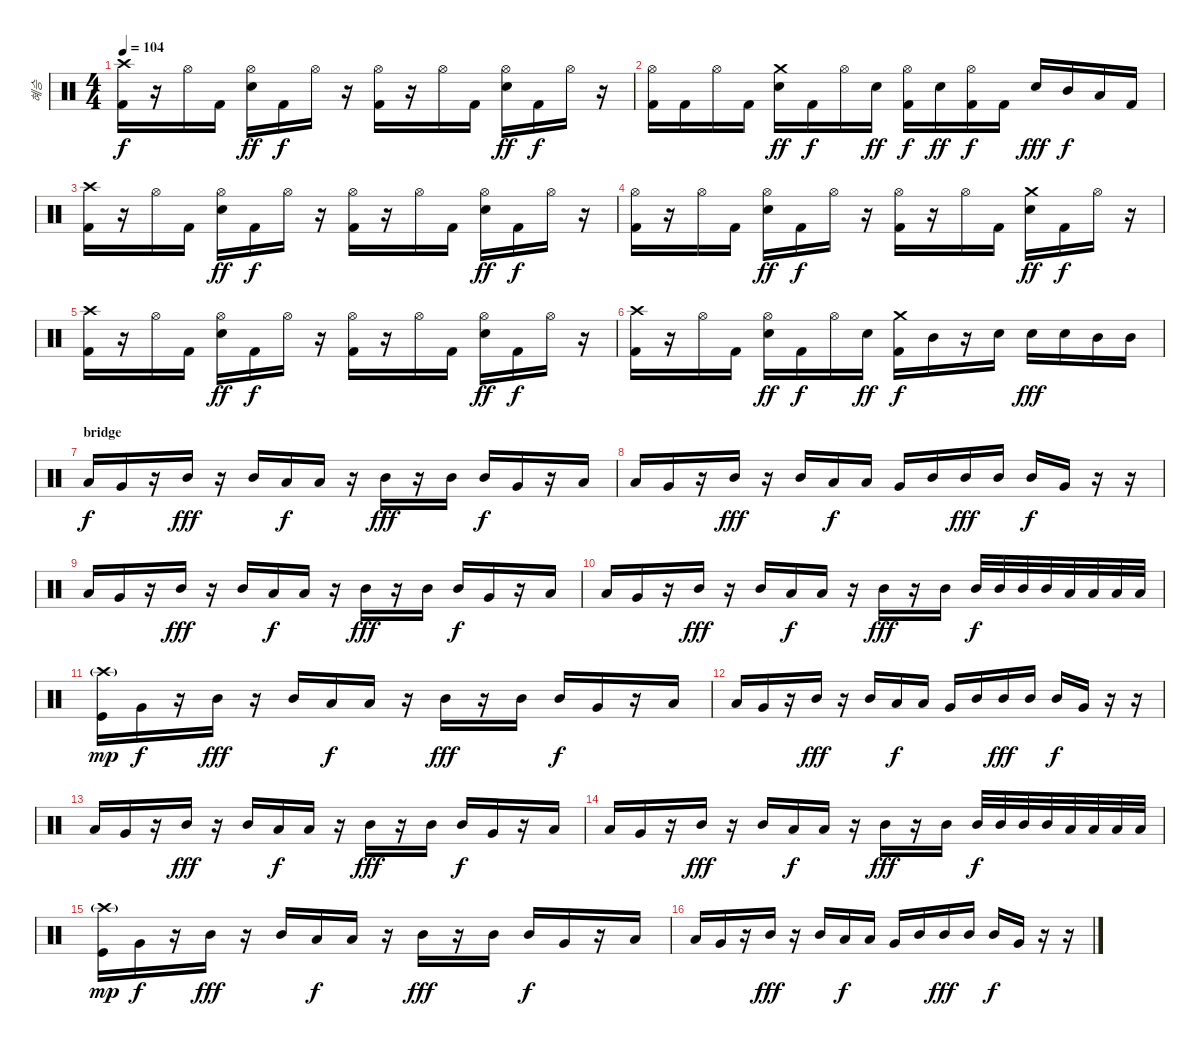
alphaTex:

\track ("혜승" "혜승") {instrument percussion}
\staff {score}
\articulation defaults
\ts (4 4)
\tempo 104
\clef neutral
\ks c
("Crash high (hit)" "Kick (hit) 2").16{dy f} r.16 "Hi-Hat (open)".16 "Kick (hit) 2".16 ("Hi-Hat (open)" "Electric Snare (hit)").16{dy ff} "Kick (hit) 2".16{dy f} "Hi-Hat (open)".16 r.16 ("Hi-Hat (open)" "Kick (hit) 2").16 r.16 "Hi-Hat (open)".16 "Kick (hit) 2".16 ("Hi-Hat (open)" "Electric Snare (hit)").16{dy ff} "Kick (hit) 2".16{dy f} "Hi-Hat (open)".16 r.16 |
("Hi-Hat (open)" "Kick (hit) 2").16 "Kick (hit) 2".16 "Hi-Hat (open)".16 "Kick (hit) 2".16 ("Crash medium (hit)" "Electric Snare (hit)").16{dy ff} "Kick (hit) 2".16{dy f} "Hi-Hat (open)".16 "Electric Snare (hit)".16{dy ff} ("Hi-Hat (open)" "Kick (hit) 2").16{dy f} "Electric Snare (hit)".16{dy ff} ("Hi-Hat (open)" "Kick (hit) 2").16{dy f} "Kick (hit) 2".16 "Electric Snare (hit)".16{dy fff} "Mid Tom (hit)".16{dy f} "Low Tom (hit)".16 "Kick (hit) 2".16 |
("Crash high (hit)" "Kick (hit) 2").16 r.16 "Hi-Hat (open)".16 "Kick (hit) 2".16 ("Hi-Hat (open)" "Electric Snare (hit)").16{dy ff} "Kick (hit) 2".16{dy f} "Hi-Hat (open)".16 r.16 ("Hi-Hat (open)" "Kick (hit) 2").16 r.16 "Hi-Hat (open)".16 "Kick (hit) 2".16 ("Hi-Hat (open)" "Electric Snare (hit)").16{dy ff} "Kick (hit) 2".16{dy f} "Hi-Hat (open)".16 r.16 |
("Hi-Hat (open)" "Kick (hit) 2").16 r.16 "Hi-Hat (open)".16 "Kick (hit) 2".16 ("Hi-Hat (open)" "Electric Snare (hit)").16{dy ff} "Kick (hit) 2".16{dy f} "Hi-Hat (open)".16 r.16 ("Hi-Hat (open)" "Kick (hit) 2").16 r.16 "Hi-Hat (open)".16 "Kick (hit) 2".16 ("Crash medium (hit)" "Electric Snare (hit)").16{dy ff} "Kick (hit) 2".16{dy f} "Hi-Hat (open)".16 r.16 |
("Crash high (hit)" "Kick (hit) 2").16 r.16 "Hi-Hat (open)".16 "Kick (hit) 2".16 ("Hi-Hat (open)" "Electric Snare (hit)").16{dy ff} "Kick (hit) 2".16{dy f} "Hi-Hat (open)".16 r.16 ("Hi-Hat (open)" "Kick (hit) 2").16 r.16 "Hi-Hat (open)".16 "Kick (hit) 2".16 ("Hi-Hat (open)" "Electric Snare (hit)").16{dy ff} "Kick (hit) 2".16{dy f} "Hi-Hat (open)".16 r.16 |
("Crash high (hit)" "Kick (hit) 2").16 r.16 "Hi-Hat (open)".16 "Kick (hit) 2".16 ("Hi-Hat (open)" "Electric Snare (hit)").16{dy ff} "Kick (hit) 2".16{dy f} "Hi-Hat (open)".16 "Electric Snare (hit)".16{dy ff} ("Crash medium (hit)" "Kick (hit) 2").16{dy f} "Mid Tom (hit)".16 r.16 "Electric Snare (hit)".16 "Electric Snare (hit)".16{dy fff} "Electric Snare (hit)".16 "Mid Tom (hit)".16 "Mid Tom (hit)".16 |
\section ("" "bridge")
"Low Tom (hit)".16{dy f} "Very Low Tom (hit)".16 r.16 "Mid Tom (hit)".16{dy fff} r.16 "Mid Tom (hit)".16 "Low Tom (hit)".16{dy f} "Low Tom (hit)".16 r.16 "Mid Tom (hit)".16{dy fff} r.16 "Mid Tom (hit)".16 "Mid Tom (hit)".16{dy f} "Very Low Tom (hit)".16 r.16 "Low Floor Tom (hit)".16 |
"Low Tom (hit)".16 "Very Low Tom (hit)".16 r.16 "Mid Tom (hit)".16{dy fff} r.16 "Mid Tom (hit)".16 "Low Tom (hit)".16{dy f} "Low Tom (hit)".16 "Very Low Tom (hit)".16 "Mid Tom (hit)".16 "Mid Tom (hit)".16{dy fff} "Mid Tom (hit)".16 "Mid Tom (hit)".16{dy f} "Very Low Tom (hit)".16 r.16 r.16 |
"Low Tom (hit)".16 "Very Low Tom (hit)".16 r.16 "Mid Tom (hit)".16{dy fff} r.16 "Mid Tom (hit)".16 "Low Tom (hit)".16{dy f} "Low Tom (hit)".16 r.16 "Mid Tom (hit)".16{dy fff} r.16 "Mid Tom (hit)".16 "Mid Tom (hit)".16{dy f} "Very Low Tom (hit)".16 r.16 "Low Tom (hit)".16 |
"Low Tom (hit)".16 "Very Low Tom (hit)".16 r.16 "Mid Tom (hit)".16{dy fff} r.16 "Mid Tom (hit)".16 "Low Tom (hit)".16{dy f} "Low Tom (hit)".16 r.16 "Mid Tom (hit)".16{dy fff} r.16 "Mid Tom (hit)".16 "Mid Tom (hit)".32{dy f} "Mid Tom (hit)".32 "Mid Tom (hit)".32 "Mid Tom (hit)".32 "Low Tom (hit)".32 "Low Tom (hit)".32 "Low Tom (hit)".32 "Low Tom (hit)".32 |
("Crash high (hit)"{g} "Kick (hit)").16{dy mp} "Very Low Tom (hit)".16{dy f} r.16 "Mid Tom (hit)".16{dy fff} r.16 "Mid Tom (hit)".16 "Low Tom (hit)".16{dy f} "Low Tom (hit)".16 r.16 "Mid Tom (hit)".16{dy fff} r.16 "Mid Tom (hit)".16 "Mid Tom (hit)".16{dy f} "Very Low Tom (hit)".16 r.16 "Low Floor Tom (hit)".16 |
"Low Tom (hit)".16 "Very Low Tom (hit)".16 r.16 "Mid Tom (hit)".16{dy fff} r.16 "Mid Tom (hit)".16 "Low Tom (hit)".16{dy f} "Low Tom (hit)".16 "Very Low Tom (hit)".16 "Mid Tom (hit)".16 "Mid Tom (hit)".16{dy fff} "Mid Tom (hit)".16 "Mid Tom (hit)".16{dy f} "Very Low Tom (hit)".16 r.16 r.16 |
"Low Tom (hit)".16 "Very Low Tom (hit)".16 r.16 "Mid Tom (hit)".16{dy fff} r.16 "Mid Tom (hit)".16 "Low Tom (hit)".16{dy f} "Low Tom (hit)".16 r.16 "Mid Tom (hit)".16{dy fff} r.16 "Mid Tom (hit)".16 "Mid Tom (hit)".16{dy f} "Very Low Tom (hit)".16 r.16 "Low Tom (hit)".16 |
"Low Tom (hit)".16 "Very Low Tom (hit)".16 r.16 "Mid Tom (hit)".16{dy fff} r.16 "Mid Tom (hit)".16 "Low Tom (hit)".16{dy f} "Low Tom (hit)".16 r.16 "Mid Tom (hit)".16{dy fff} r.16 "Mid Tom (hit)".16 "Mid Tom (hit)".32{dy f} "Mid Tom (hit)".32 "Mid Tom (hit)".32 "Mid Tom (hit)".32 "Low Tom (hit)".32 "Low Tom (hit)".32 "Low Tom (hit)".32 "Low Tom (hit)".32 |
("Crash high (hit)"{g} "Kick (hit)").16{dy mp} "Very Low Tom (hit)".16{dy f} r.16 "Mid Tom (hit)".16{dy fff} r.16 "Mid Tom (hit)".16 "Low Tom (hit)".16{dy f} "Low Tom (hit)".16 r.16 "Mid Tom (hit)".16{dy fff} r.16 "Mid Tom (hit)".16 "Mid Tom (hit)".16{dy f} "Very Low Tom (hit)".16 r.16 "Low Floor Tom (hit)".16 |
"Low Tom (hit)".16 "Very Low Tom (hit)".16 r.16 "Mid Tom (hit)".16{dy fff} r.16 "Mid Tom (hit)".16 "Low Tom (hit)".16{dy f} "Low Tom (hit)".16 "Very Low Tom (hit)".16 "Mid Tom (hit)".16 "Mid Tom (hit)".16{dy fff} "Mid Tom (hit)".16 "Mid Tom (hit)".16{dy f} "Very Low Tom (hit)".16 r.16 r.16
